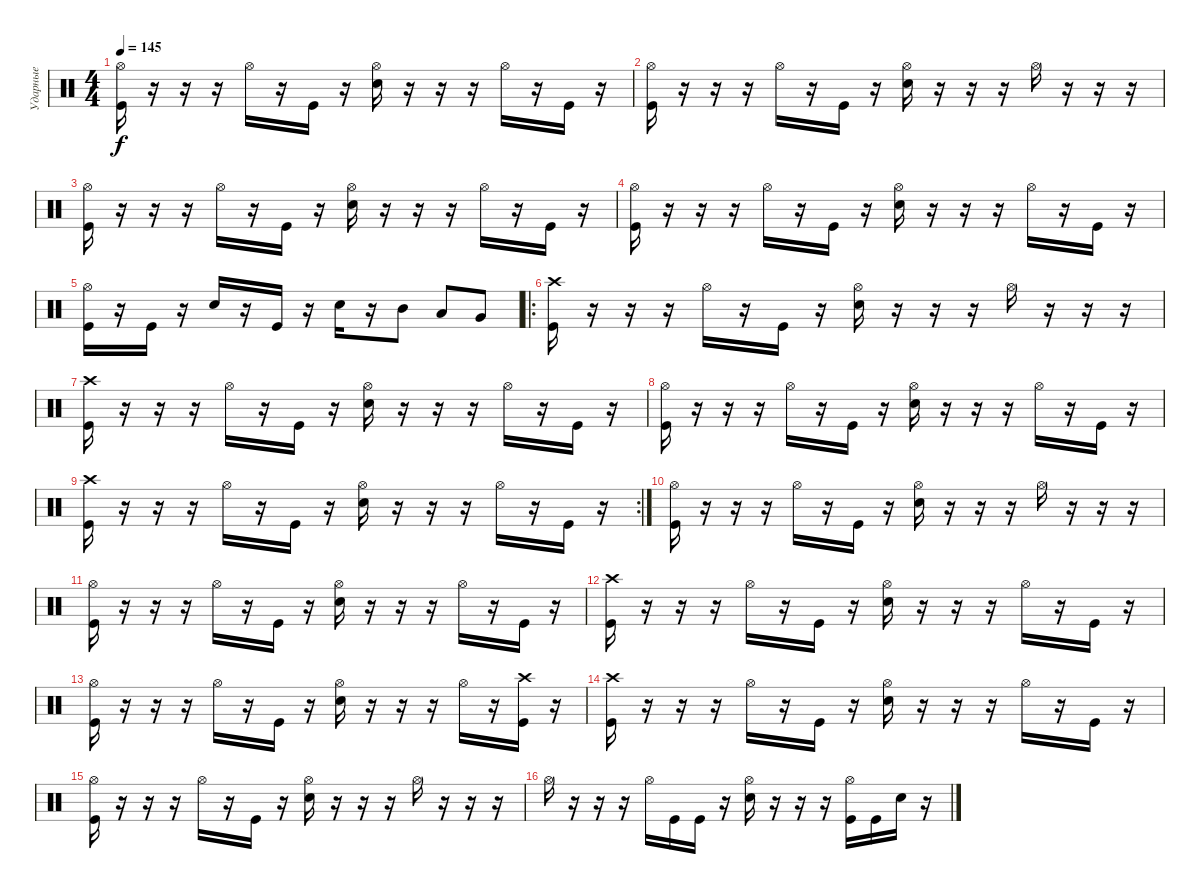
\track ("Ударные" "Ударные") {instrument percussion}
\staff {score}
\articulation defaults
\ts (4 4)
\tempo 145
\clef neutral
\ks c
("Hi-Hat (open)" "Kick (hit)").16{dy f} r.16 r.16 r.16 "Hi-Hat (open)".16 r.16 "Kick (hit)".16 r.16 ("Hi-Hat (open)" "Snare (hit) 2").16 r.16 r.16 r.16 "Hi-Hat (open)".16 r.16 "Kick (hit)".16 r.16 |
("Hi-Hat (open)" "Kick (hit)").16{volume 11} r.16 r.16 r.16 "Hi-Hat (open)".16 r.16 "Kick (hit)".16 r.16 ("Hi-Hat (open)" "Snare (hit) 2").16 r.16 r.16 r.16 "Hi-Hat (open)".16 r.16 r.16 r.16 |
("Hi-Hat (open)" "Kick (hit)").16 r.16 r.16 r.16 "Hi-Hat (open)".16 r.16 "Kick (hit)".16 r.16 ("Hi-Hat (open)" "Snare (hit) 2").16 r.16 r.16 r.16 "Hi-Hat (open)".16 r.16 "Kick (hit)".16 r.16 |
("Hi-Hat (open)" "Kick (hit)").16 r.16 r.16 r.16 "Hi-Hat (open)".16 r.16 "Kick (hit)".16 r.16 ("Hi-Hat (open)" "Snare (hit) 2").16 r.16 r.16 r.16 "Hi-Hat (open)".16 r.16 "Kick (hit)".16 r.16 |
("Hi-Hat (open)" "Kick (hit)").16 r.16 "Kick (hit)".16 r.16 "Snare (hit) 2".16 r.16 "Kick (hit)".16 r.16 "Snare (hit) 2".16 r.16 "Mid Tom (hit)".8 "Low Tom (hit)".8 "Very Low Tom (hit)".8 |
\ro
("Crash high (hit)" "Kick (hit)").16{volume 11} r.16 r.16 r.16 "Hi-Hat (open)".16 r.16 "Kick (hit)".16 r.16 ("Hi-Hat (open)" "Snare (hit) 2").16 r.16 r.16 r.16 "Hi-Hat (open)".16 r.16 r.16 r.16 |
("Crash high (hit)" "Kick (hit)").16 r.16 r.16 r.16 "Hi-Hat (open)".16 r.16 "Kick (hit)".16 r.16 ("Hi-Hat (open)" "Snare (hit) 2").16 r.16 r.16 r.16 "Hi-Hat (open)".16 r.16 "Kick (hit)".16 r.16 |
("Hi-Hat (open)" "Kick (hit)").16 r.16 r.16 r.16 "Hi-Hat (open)".16 r.16 "Kick (hit)".16 r.16 ("Hi-Hat (open)" "Snare (hit) 2").16 r.16 r.16 r.16 "Hi-Hat (open)".16 r.16 "Kick (hit)".16 r.16 |
\rc 2
("Crash high (hit)" "Kick (hit)").16 r.16 r.16 r.16 "Hi-Hat (open)".16 r.16 "Kick (hit)".16 r.16 ("Hi-Hat (open)" "Snare (hit) 2").16 r.16 r.16 r.16 "Hi-Hat (open)".16 r.16 "Kick (hit)".16 r.16 |
("Hi-Hat (open)" "Kick (hit)").16{volume 11} r.16 r.16 r.16 "Hi-Hat (open)".16 r.16 "Kick (hit)".16 r.16 ("Hi-Hat (open)" "Snare (hit) 2").16 r.16 r.16 r.16 "Hi-Hat (open)".16 r.16 r.16 r.16 |
("Hi-Hat (open)" "Kick (hit)").16 r.16 r.16 r.16 "Hi-Hat (open)".16 r.16 "Kick (hit)".16 r.16 ("Hi-Hat (open)" "Snare (hit) 2").16 r.16 r.16 r.16 "Hi-Hat (open)".16 r.16 "Kick (hit)".16 r.16 |
("Crash high (hit)" "Kick (hit)").16 r.16 r.16 r.16 "Hi-Hat (open)".16 r.16 "Kick (hit)".16 r.16 ("Hi-Hat (open)" "Snare (hit) 2").16 r.16 r.16 r.16 "Hi-Hat (open)".16 r.16 "Kick (hit)".16 r.16 |
("Hi-Hat (open)" "Kick (hit)").16 r.16 r.16 r.16 "Hi-Hat (open)".16 r.16 "Kick (hit)".16 r.16 ("Hi-Hat (open)" "Snare (hit) 2").16 r.16 r.16 r.16 "Hi-Hat (open)".16 r.16 ("Crash high (hit)" "Kick (hit)").16 r.16 |
("Crash high (hit)" "Kick (hit)").16 r.16 r.16 r.16 "Hi-Hat (open)".16 r.16 "Kick (hit)".16 r.16 ("Hi-Hat (open)" "Snare (hit) 2").16 r.16 r.16 r.16 "Hi-Hat (open)".16 r.16 "Kick (hit)".16 r.16 |
("Hi-Hat (open)" "Kick (hit)").16 r.16 r.16 r.16 "Hi-Hat (open)".16 r.16 "Kick (hit)".16 r.16 ("Hi-Hat (open)" "Snare (hit) 2").16 r.16 r.16 r.16 "Hi-Hat (open)".16 r.16 r.16 r.16 |
"Hi-Hat (open)".16 r.16 r.16 r.16 "Hi-Hat (open)".16 "Kick (hit)".16 "Kick (hit)".16 r.16 ("Hi-Hat (open)" "Snare (hit) 2").16 r.16 r.16 r.16 ("Hi-Hat (open)" "Kick (hit)").16 "Kick (hit)".16 "Snare (hit) 2".16 r.16
